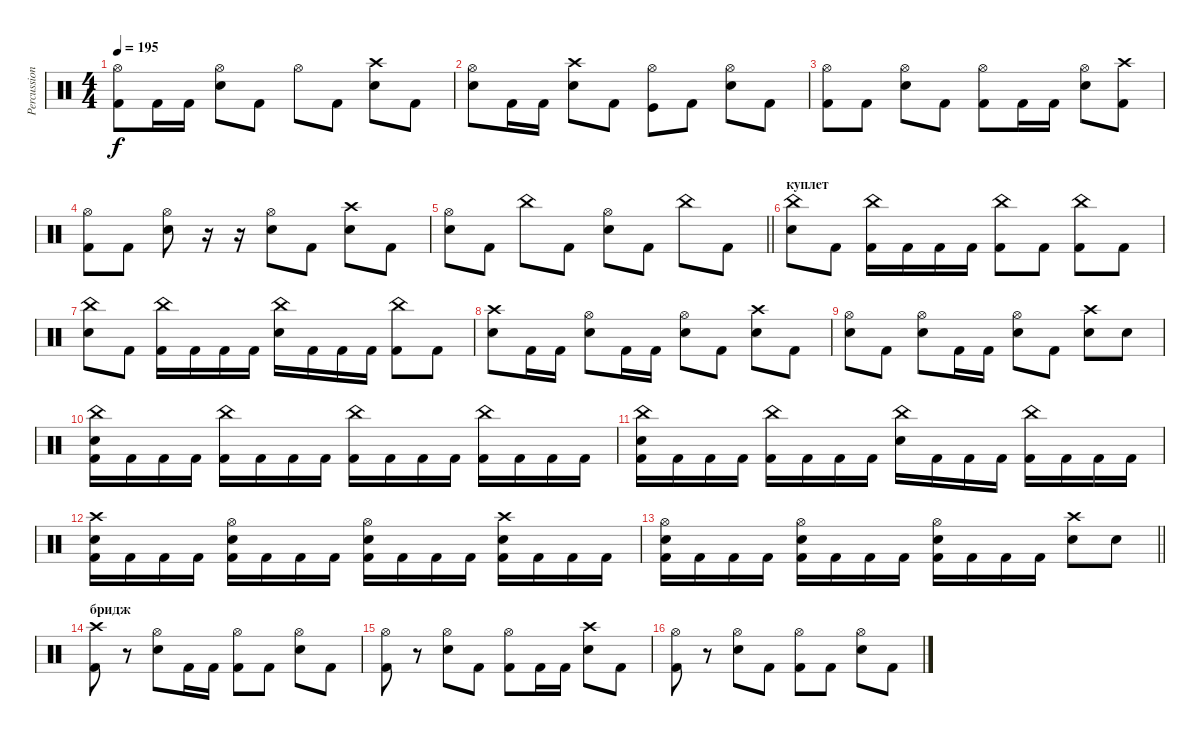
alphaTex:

\track ("Percussions" "Percussion") {instrument percussion}
\staff {score}
\articulation defaults
\ts (4 4)
\tempo 195
\clef neutral
\ks c
("Hi-Hat (open)" "Kick (hit) 2").8{dy f} "Kick (hit) 2".16 "Kick (hit) 2".16 ("Hi-Hat (open)" "Electric Snare (hit)").8 "Kick (hit) 2".8 "Hi-Hat (open)".8 "Kick (hit) 2".8 ("Crash high (hit)" "Electric Snare (hit)").8 "Kick (hit) 2".8 |
("Hi-Hat (open)" "Electric Snare (hit)").8 "Kick (hit) 2".16 "Kick (hit) 2".16 ("Crash high (hit)" "Electric Snare (hit)").8 "Kick (hit) 2".8 ("Hi-Hat (open)" "Kick (hit)").8 "Kick (hit) 2".8 ("Hi-Hat (open)" "Electric Snare (hit)").8 "Kick (hit) 2".8 |
("Hi-Hat (open)" "Kick (hit) 2").8 "Kick (hit) 2".8 ("Hi-Hat (open)" "Electric Snare (hit)").8 "Kick (hit) 2".8 ("Hi-Hat (open)" "Kick (hit) 2").8 "Kick (hit) 2".16 "Kick (hit) 2".16 ("Hi-Hat (open)" "Electric Snare (hit)").8 ("Crash high (hit)" "Kick (hit) 2").8 |
("Hi-Hat (open)" "Kick (hit) 2").8 "Kick (hit) 2".8 ("Hi-Hat (open)" "Electric Snare (hit)").8 r.16 r.16 ("Hi-Hat (open)" "Electric Snare (hit)").8 "Kick (hit) 2".8 ("Crash high (hit)" "Electric Snare (hit)").8 "Kick (hit) 2".8 |
\barLineRight lightlight
("Hi-Hat (open)" "Electric Snare (hit)").8 "Kick (hit) 2".8 "China (hit)".8 "Kick (hit) 2".8 ("Hi-Hat (open)" "Electric Snare (hit)").8 "Kick (hit) 2".8 "China (hit)".8 "Kick (hit) 2".8 |
\section ("" "куплет ")
("China (hit)" "Electric Snare (hit)").8 "Kick (hit) 2".8 ("China (hit)" "Kick (hit) 2").16 "Kick (hit) 2".16 "Kick (hit) 2".16 "Kick (hit) 2".16 ("China (hit)" "Kick (hit) 2").8 "Kick (hit) 2".8 ("China (hit)" "Kick (hit) 2").8 "Kick (hit) 2".8 |
("China (hit)" "Electric Snare (hit)").8 "Kick (hit) 2".8 ("China (hit)" "Kick (hit) 2").16 "Kick (hit) 2".16 "Kick (hit) 2".16 "Kick (hit) 2".16 ("China (hit)" "Electric Snare (hit)").16 "Kick (hit) 2".16 "Kick (hit) 2".16 "Kick (hit) 2".16 ("China (hit)" "Kick (hit) 2").8 "Kick (hit) 2".8 |
("Crash high (hit)" "Electric Snare (hit)").8 "Kick (hit) 2".16 "Kick (hit) 2".16 ("Hi-Hat (open)" "Electric Snare (hit)").8 "Kick (hit) 2".16 "Kick (hit) 2".16 ("Hi-Hat (open)" "Electric Snare (hit)").8 "Kick (hit) 2".8 ("Crash high (hit)" "Electric Snare (hit)").8 "Kick (hit) 2".8 |
("Hi-Hat (open)" "Electric Snare (hit)").8 "Kick (hit) 2".8 ("Hi-Hat (open)" "Electric Snare (hit)").8 "Kick (hit) 2".16 "Kick (hit) 2".16 ("Hi-Hat (open)" "Electric Snare (hit)").8 "Kick (hit) 2".8 ("Crash high (hit)" "Electric Snare (hit)").8 "Electric Snare (hit)".8 |
("China (hit)" "Electric Snare (hit)" "Kick (hit) 2").16 "Kick (hit) 2".16 "Kick (hit) 2".16 "Kick (hit) 2".16 ("China (hit)" "Kick (hit) 2").16 "Kick (hit) 2".16 "Kick (hit) 2".16 "Kick (hit) 2".16 ("China (hit)" "Kick (hit) 2").16 "Kick (hit) 2".16 "Kick (hit) 2".16 "Kick (hit) 2".16 ("China (hit)" "Kick (hit) 2").16 "Kick (hit) 2".16 "Kick (hit) 2".16 "Kick (hit) 2".16 |
("China (hit)" "Electric Snare (hit)" "Kick (hit) 2").16 "Kick (hit) 2".16 "Kick (hit) 2".16 "Kick (hit) 2".16 ("China (hit)" "Kick (hit) 2").16 "Kick (hit) 2".16 "Kick (hit) 2".16 "Kick (hit) 2".16 ("China (hit)" "Electric Snare (hit)").16 "Kick (hit) 2".16 "Kick (hit) 2".16 "Kick (hit) 2".16 ("China (hit)" "Kick (hit) 2").16 "Kick (hit) 2".16 "Kick (hit) 2".16 "Kick (hit) 2".16 |
("Crash high (hit)" "Electric Snare (hit)" "Kick (hit) 2").16 "Kick (hit) 2".16 "Kick (hit) 2".16 "Kick (hit) 2".16 ("Hi-Hat (open)" "Electric Snare (hit)" "Kick (hit) 2").16 "Kick (hit) 2".16 "Kick (hit) 2".16 "Kick (hit) 2".16 ("Hi-Hat (open)" "Electric Snare (hit)" "Kick (hit) 2").16 "Kick (hit) 2".16 "Kick (hit) 2".16 "Kick (hit) 2".16 ("Crash high (hit)" "Electric Snare (hit)" "Kick (hit) 2").16 "Kick (hit) 2".16 "Kick (hit) 2".16 "Kick (hit) 2".16 |
\barLineRight lightlight
("Hi-Hat (open)" "Electric Snare (hit)" "Kick (hit) 2").16 "Kick (hit) 2".16 "Kick (hit) 2".16 "Kick (hit) 2".16 ("Hi-Hat (open)" "Electric Snare (hit)" "Kick (hit) 2").16 "Kick (hit) 2".16 "Kick (hit) 2".16 "Kick (hit) 2".16 ("Hi-Hat (open)" "Electric Snare (hit)" "Kick (hit) 2").16 "Kick (hit) 2".16 "Kick (hit) 2".16 "Kick (hit) 2".16 ("Crash high (hit)" "Electric Snare (hit)").8 "Electric Snare (hit)".8 |
\section ("" "бридж")
("Crash high (hit)" "Kick (hit) 2").8 r.8 ("Hi-Hat (open)" "Electric Snare (hit)").8 "Kick (hit) 2".16 "Kick (hit) 2".16 ("Hi-Hat (open)" "Kick (hit) 2").8 "Kick (hit) 2".8 ("Hi-Hat (open)" "Electric Snare (hit)").8 "Kick (hit) 2".8 |
("Hi-Hat (open)" "Kick (hit) 2").8 r.8 ("Hi-Hat (open)" "Electric Snare (hit)").8 "Kick (hit) 2".8 ("Hi-Hat (open)" "Kick (hit) 2").8 "Kick (hit) 2".16 "Kick (hit) 2".16 ("Crash high (hit)" "Electric Snare (hit)").8 "Kick (hit) 2".8 |
("Hi-Hat (open)" "Kick (hit) 2").8 r.8 ("Hi-Hat (open)" "Electric Snare (hit)").8 "Kick (hit) 2".8 ("Hi-Hat (open)" "Kick (hit) 2").8 "Kick (hit) 2".8 ("Hi-Hat (open)" "Electric Snare (hit)").8 "Kick (hit) 2".8
